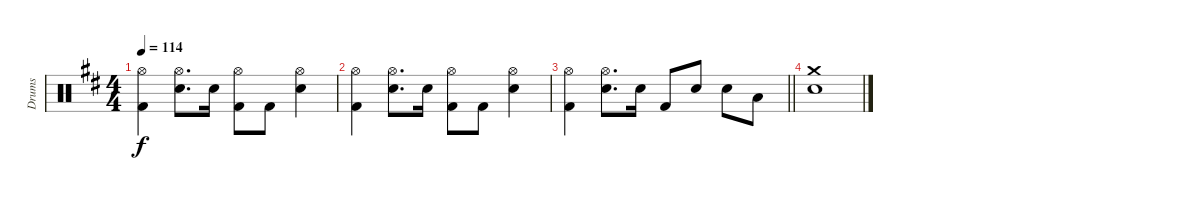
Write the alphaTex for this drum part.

\track ("Drums" "Drums") {instrument percussion}
\staff {score}
\articulation defaults
\ts (4 4)
\tempo 114
\clef neutral
\ks bminor
("Hi-Hat (open)" "Kick (hit) 2").4{dy f} ("Hi-Hat (open)" "Snare (hit) 2").8{d} "Snare (hit) 2".16 ("Hi-Hat (open)" "Kick (hit) 2").8 "Kick (hit) 2".8 ("Hi-Hat (open)" "Snare (hit) 2").4 |
("Hi-Hat (open)" "Kick (hit) 2").4 ("Hi-Hat (open)" "Snare (hit) 2").8{d} "Snare (hit) 2".16 ("Hi-Hat (open)" "Kick (hit) 2").8 "Kick (hit) 2".8 ("Hi-Hat (open)" "Snare (hit) 2").4 |
\barLineRight lightlight
("Hi-Hat (open)" "Kick (hit) 2").4 ("Hi-Hat (open)" "Snare (hit) 2").8{d} "Snare (hit) 2".16 "Kick (hit) 2".8 "Snare (hit) 2".8 "Snare (hit) 2".8 "Low Tom (hit)".8 |
("Crash medium (hit)" "Snare (hit) 2").1
